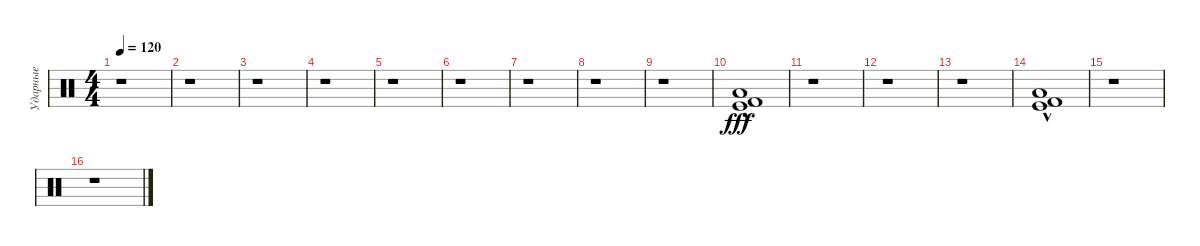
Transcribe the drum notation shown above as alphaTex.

\track ("Ударные" "Ударные") {instrument percussion}
\staff {score}
\articulation defaults
\ts (4 4)
\tempo 120
\clef neutral
\ks c
r.1{dy fff} |
r.1 |
r.1 |
r.1 |
r.1 |
r.1 |
r.1 |
r.1 |
r.1 |
("Kick (hit)"{hac} "Kick (hit) 2"{hac} "Low Floor Tom (hit)"{hac}).1 |
r.1 |
r.1 |
r.1 |
("Kick (hit)"{hac} "Kick (hit) 2"{hac} "Low Floor Tom (hit)"{hac}).1 |
r.1 |
r.1
